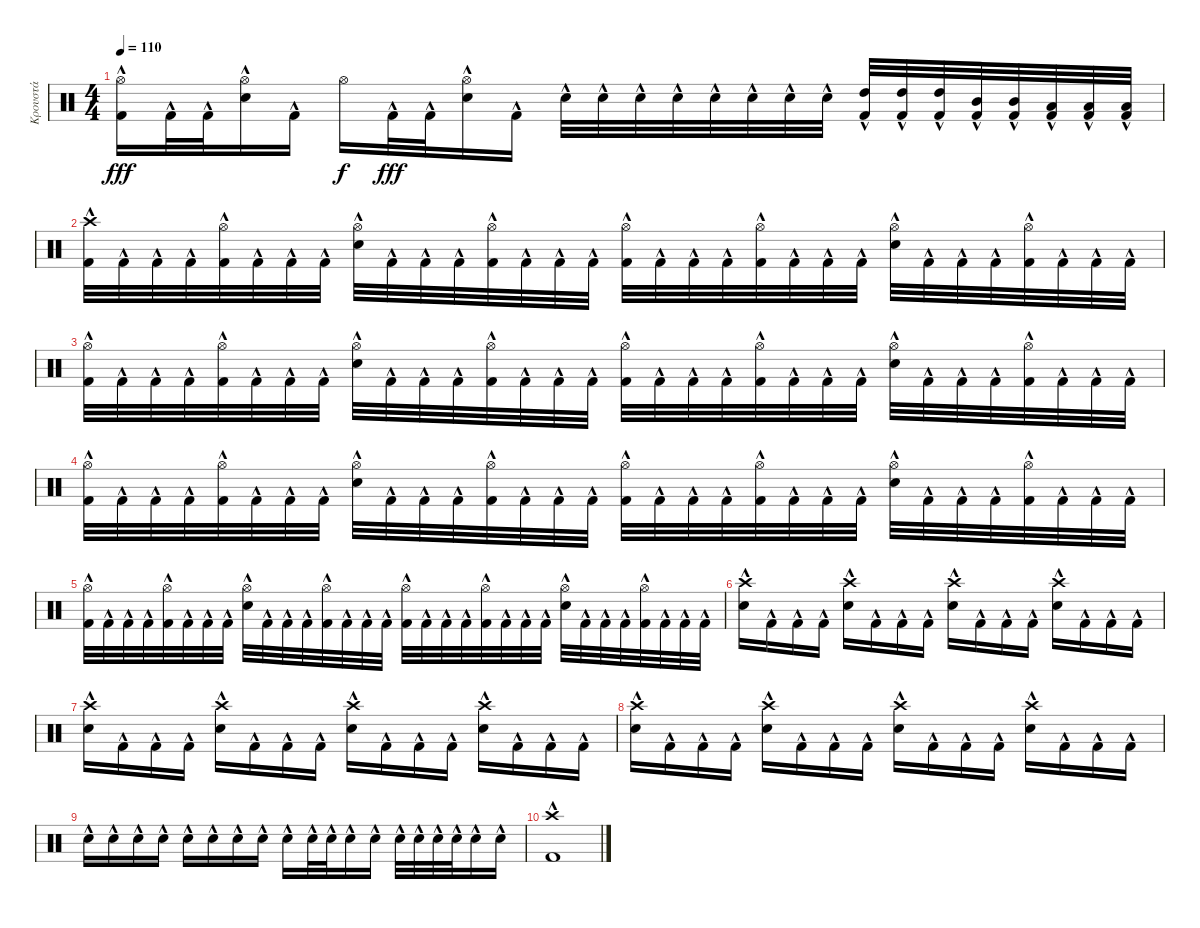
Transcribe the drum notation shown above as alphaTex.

\track ("Κρουστά" "Κρουστά") {instrument percussion}
\staff {score}
\articulation defaults
\ts (4 4)
\tempo 110
\clef neutral
\ks c
("Hi-Hat (open)" "Kick (hit) 2"{hac}).16{dy fff} "Kick (hit) 2"{hac}.32 "Kick (hit) 2"{hac}.32 ("Hi-Hat (open)" "Electric Snare (hit)"{hac}).16 "Kick (hit) 2"{hac}.16 "Hi-Hat (open)".16{dy f} "Kick (hit) 2"{hac}.32{dy fff} "Kick (hit) 2"{hac}.32 ("Hi-Hat (open)" "Electric Snare (hit)"{hac}).16 "Kick (hit) 2"{hac}.16 "Electric Snare (hit)"{hac}.32 "Electric Snare (hit)"{hac}.32 "Electric Snare (hit)"{hac}.32 "Electric Snare (hit)"{hac}.32 "Electric Snare (hit)"{hac}.32 "Electric Snare (hit)"{hac}.32 "Electric Snare (hit)"{hac}.32 "Electric Snare (hit)"{hac}.32 ("High Tom (hit)" "Kick (hit) 2"{hac}).32 ("High Tom (hit)" "Kick (hit) 2"{hac}).32 ("High Tom (hit)" "Kick (hit) 2"{hac}).32 ("Mid Tom (hit)" "Kick (hit) 2"{hac}).32 ("Mid Tom (hit)" "Kick (hit) 2"{hac}).32 ("Low Tom (hit)" "Kick (hit) 2"{hac}).32 ("Low Tom (hit)" "Kick (hit) 2"{hac}).32 ("Low Tom (hit)" "Kick (hit) 2"{hac}).32 |
("Crash high (hit)" "Kick (hit) 2"{hac}).32 "Kick (hit) 2"{hac}.32 "Kick (hit) 2"{hac}.32 "Kick (hit) 2"{hac}.32 ("Hi-Hat (open)" "Kick (hit) 2"{hac}).32 "Kick (hit) 2"{hac}.32 "Kick (hit) 2"{hac}.32 "Kick (hit) 2"{hac}.32 ("Hi-Hat (open)" "Electric Snare (hit)"{hac}).32 "Kick (hit) 2"{hac}.32 "Kick (hit) 2"{hac}.32 "Kick (hit) 2"{hac}.32 ("Hi-Hat (open)" "Kick (hit) 2"{hac}).32 "Kick (hit) 2"{hac}.32 "Kick (hit) 2"{hac}.32 "Kick (hit) 2"{hac}.32 ("Hi-Hat (open)" "Kick (hit) 2"{hac}).32 "Kick (hit) 2"{hac}.32 "Kick (hit) 2"{hac}.32 "Kick (hit) 2"{hac}.32 ("Hi-Hat (open)" "Kick (hit) 2"{hac}).32 "Kick (hit) 2"{hac}.32 "Kick (hit) 2"{hac}.32 "Kick (hit) 2"{hac}.32 ("Hi-Hat (open)" "Electric Snare (hit)"{hac}).32 "Kick (hit) 2"{hac}.32 "Kick (hit) 2"{hac}.32 "Kick (hit) 2"{hac}.32 ("Hi-Hat (open)" "Kick (hit) 2"{hac}).32 "Kick (hit) 2"{hac}.32 "Kick (hit) 2"{hac}.32 "Kick (hit) 2"{hac}.32 |
("Hi-Hat (open)" "Kick (hit) 2"{hac}).32 "Kick (hit) 2"{hac}.32 "Kick (hit) 2"{hac}.32 "Kick (hit) 2"{hac}.32 ("Hi-Hat (open)" "Kick (hit) 2"{hac}).32 "Kick (hit) 2"{hac}.32 "Kick (hit) 2"{hac}.32 "Kick (hit) 2"{hac}.32 ("Hi-Hat (open)" "Electric Snare (hit)"{hac}).32 "Kick (hit) 2"{hac}.32 "Kick (hit) 2"{hac}.32 "Kick (hit) 2"{hac}.32 ("Hi-Hat (open)" "Kick (hit) 2"{hac}).32 "Kick (hit) 2"{hac}.32 "Kick (hit) 2"{hac}.32 "Kick (hit) 2"{hac}.32 ("Hi-Hat (open)" "Kick (hit) 2"{hac}).32 "Kick (hit) 2"{hac}.32 "Kick (hit) 2"{hac}.32 "Kick (hit) 2"{hac}.32 ("Hi-Hat (open)" "Kick (hit) 2"{hac}).32 "Kick (hit) 2"{hac}.32 "Kick (hit) 2"{hac}.32 "Kick (hit) 2"{hac}.32 ("Hi-Hat (open)" "Electric Snare (hit)"{hac}).32 "Kick (hit) 2"{hac}.32 "Kick (hit) 2"{hac}.32 "Kick (hit) 2"{hac}.32 ("Hi-Hat (open)" "Kick (hit) 2"{hac}).32 "Kick (hit) 2"{hac}.32 "Kick (hit) 2"{hac}.32 "Kick (hit) 2"{hac}.32 |
("Hi-Hat (open)" "Kick (hit) 2"{hac}).32 "Kick (hit) 2"{hac}.32 "Kick (hit) 2"{hac}.32 "Kick (hit) 2"{hac}.32 ("Hi-Hat (open)" "Kick (hit) 2"{hac}).32 "Kick (hit) 2"{hac}.32 "Kick (hit) 2"{hac}.32 "Kick (hit) 2"{hac}.32 ("Hi-Hat (open)" "Electric Snare (hit)"{hac}).32 "Kick (hit) 2"{hac}.32 "Kick (hit) 2"{hac}.32 "Kick (hit) 2"{hac}.32 ("Hi-Hat (open)" "Kick (hit) 2"{hac}).32 "Kick (hit) 2"{hac}.32 "Kick (hit) 2"{hac}.32 "Kick (hit) 2"{hac}.32 ("Hi-Hat (open)" "Kick (hit) 2"{hac}).32 "Kick (hit) 2"{hac}.32 "Kick (hit) 2"{hac}.32 "Kick (hit) 2"{hac}.32 ("Hi-Hat (open)" "Kick (hit) 2"{hac}).32 "Kick (hit) 2"{hac}.32 "Kick (hit) 2"{hac}.32 "Kick (hit) 2"{hac}.32 ("Hi-Hat (open)" "Electric Snare (hit)"{hac}).32 "Kick (hit) 2"{hac}.32 "Kick (hit) 2"{hac}.32 "Kick (hit) 2"{hac}.32 ("Hi-Hat (open)" "Kick (hit) 2"{hac}).32 "Kick (hit) 2"{hac}.32 "Kick (hit) 2"{hac}.32 "Kick (hit) 2"{hac}.32 |
("Hi-Hat (open)" "Kick (hit) 2"{hac}).32 "Kick (hit) 2"{hac}.32 "Kick (hit) 2"{hac}.32 "Kick (hit) 2"{hac}.32 ("Hi-Hat (open)" "Kick (hit) 2"{hac}).32 "Kick (hit) 2"{hac}.32 "Kick (hit) 2"{hac}.32 "Kick (hit) 2"{hac}.32 ("Hi-Hat (open)" "Electric Snare (hit)"{hac}).32 "Kick (hit) 2"{hac}.32 "Kick (hit) 2"{hac}.32 "Kick (hit) 2"{hac}.32 ("Hi-Hat (open)" "Kick (hit) 2"{hac}).32 "Kick (hit) 2"{hac}.32 "Kick (hit) 2"{hac}.32 "Kick (hit) 2"{hac}.32 ("Hi-Hat (open)" "Kick (hit) 2"{hac}).32 "Kick (hit) 2"{hac}.32 "Kick (hit) 2"{hac}.32 "Kick (hit) 2"{hac}.32 ("Hi-Hat (open)" "Kick (hit) 2"{hac}).32 "Kick (hit) 2"{hac}.32 "Kick (hit) 2"{hac}.32 "Kick (hit) 2"{hac}.32 ("Hi-Hat (open)" "Electric Snare (hit)"{hac}).32 "Kick (hit) 2"{hac}.32 "Kick (hit) 2"{hac}.32 "Kick (hit) 2"{hac}.32 ("Hi-Hat (open)" "Kick (hit) 2"{hac}).32 "Kick (hit) 2"{hac}.32 "Kick (hit) 2"{hac}.32 "Kick (hit) 2"{hac}.32 |
("Crash high (hit)" "Electric Snare (hit)"{hac}).16 "Kick (hit) 2"{hac}.16 "Kick (hit) 2"{hac}.16 "Kick (hit) 2"{hac}.16 ("Crash high (hit)" "Electric Snare (hit)"{hac}).16 "Kick (hit) 2"{hac}.16 "Kick (hit) 2"{hac}.16 "Kick (hit) 2"{hac}.16 ("Crash high (hit)" "Electric Snare (hit)"{hac}).16 "Kick (hit) 2"{hac}.16 "Kick (hit) 2"{hac}.16 "Kick (hit) 2"{hac}.16 ("Crash high (hit)" "Electric Snare (hit)"{hac}).16 "Kick (hit) 2"{hac}.16 "Kick (hit) 2"{hac}.16 "Kick (hit) 2"{hac}.16 |
("Crash high (hit)" "Electric Snare (hit)"{hac}).16 "Kick (hit) 2"{hac}.16 "Kick (hit) 2"{hac}.16 "Kick (hit) 2"{hac}.16 ("Crash high (hit)" "Electric Snare (hit)"{hac}).16 "Kick (hit) 2"{hac}.16 "Kick (hit) 2"{hac}.16 "Kick (hit) 2"{hac}.16 ("Crash high (hit)" "Electric Snare (hit)"{hac}).16 "Kick (hit) 2"{hac}.16 "Kick (hit) 2"{hac}.16 "Kick (hit) 2"{hac}.16 ("Crash high (hit)" "Electric Snare (hit)"{hac}).16 "Kick (hit) 2"{hac}.16 "Kick (hit) 2"{hac}.16 "Kick (hit) 2"{hac}.16 |
("Crash high (hit)" "Electric Snare (hit)"{hac}).16 "Kick (hit) 2"{hac}.16 "Kick (hit) 2"{hac}.16 "Kick (hit) 2"{hac}.16 ("Crash high (hit)" "Electric Snare (hit)"{hac}).16 "Kick (hit) 2"{hac}.16 "Kick (hit) 2"{hac}.16 "Kick (hit) 2"{hac}.16 ("Crash high (hit)" "Electric Snare (hit)"{hac}).16 "Kick (hit) 2"{hac}.16 "Kick (hit) 2"{hac}.16 "Kick (hit) 2"{hac}.16 ("Crash high (hit)" "Electric Snare (hit)"{hac}).16 "Kick (hit) 2"{hac}.16 "Kick (hit) 2"{hac}.16 "Kick (hit) 2"{hac}.16 |
"Electric Snare (hit)"{hac}.16 "Electric Snare (hit)"{hac}.16 "Electric Snare (hit)"{hac}.16 "Electric Snare (hit)"{hac}.16 "Electric Snare (hit)"{hac}.16 "Electric Snare (hit)"{hac}.16 "Electric Snare (hit)"{hac}.16 "Electric Snare (hit)"{hac}.16 "Electric Snare (hit)"{hac}.16 "Electric Snare (hit)"{hac}.32 "Electric Snare (hit)"{hac}.32 "Electric Snare (hit)"{hac}.16 "Electric Snare (hit)"{hac}.16 "Electric Snare (hit)"{hac}.32 "Electric Snare (hit)"{hac}.32 "Electric Snare (hit)"{hac}.32 "Electric Snare (hit)"{hac}.32 "Electric Snare (hit)"{hac}.16 "Electric Snare (hit)"{hac}.16 |
("Kick (hit) 2"{hac} "Crash high (hit)").1
